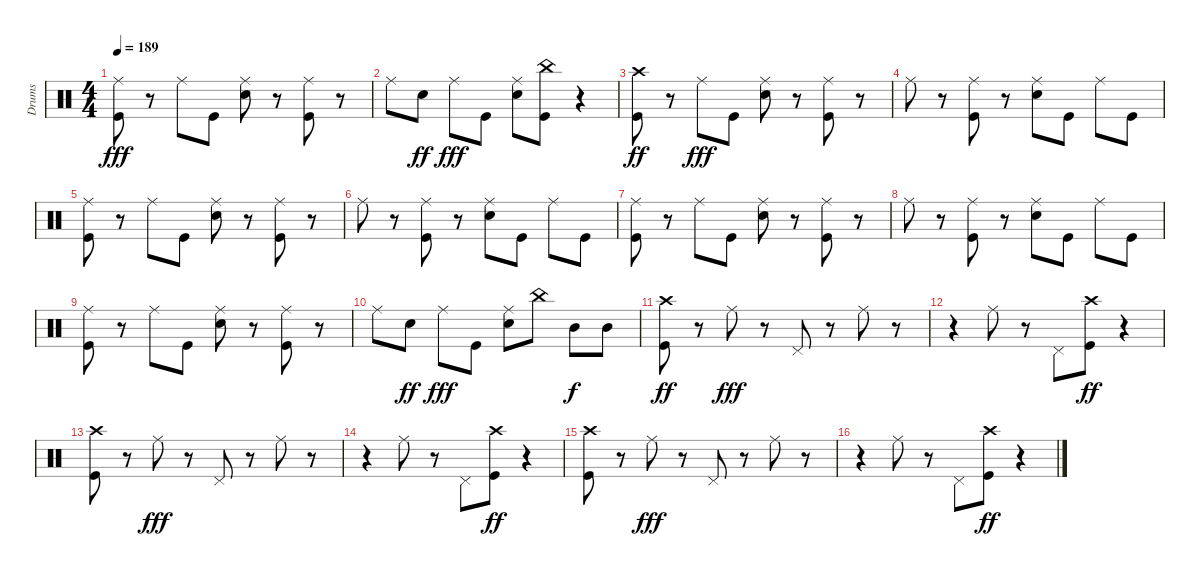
\track ("Drums" "Drums") {instrument percussion}
\staff {score}
\articulation defaults
\ts (4 4)
\tempo 189
\clef neutral
\ks c
("Kick (hit)" "Ride (middle)").8{dy fff} r.8 "Ride (middle)".8 "Kick (hit)".8 ("Snare (hit) 2" "Ride (middle)").8 r.8 ("Kick (hit)" "Ride (middle)").8 r.8 |
"Ride (middle)".8 "Snare (hit) 2".8{dy ff} "Ride (middle)".8{dy fff} "Kick (hit)".8 ("Snare (hit) 2" "Ride (middle)").8 ("Kick (hit)" "China (hit)").8 r.4 |
("Kick (hit)" "Crash high (hit)").8{dy ff} r.8 "Ride (middle)".8{dy fff} "Kick (hit)".8 ("Snare (hit) 2" "Ride (middle)").8 r.8 ("Kick (hit)" "Ride (middle)").8 r.8 |
"Ride (middle)".8 r.8 ("Kick (hit)" "Ride (middle)").8 r.8 ("Snare (hit) 2" "Ride (middle)").8 "Kick (hit)".8 "Ride (middle)".8 "Kick (hit)".8 |
("Kick (hit)" "Ride (middle)").8 r.8 "Ride (middle)".8 "Kick (hit)".8 ("Snare (hit) 2" "Ride (middle)").8 r.8 ("Kick (hit)" "Ride (middle)").8 r.8 |
"Ride (middle)".8 r.8 ("Kick (hit)" "Ride (middle)").8 r.8 ("Snare (hit) 2" "Ride (middle)").8 "Kick (hit)".8 "Ride (middle)".8 "Kick (hit)".8 |
("Kick (hit)" "Ride (middle)").8 r.8 "Ride (middle)".8 "Kick (hit)".8 ("Snare (hit) 2" "Ride (middle)").8 r.8 ("Kick (hit)" "Ride (middle)").8 r.8 |
"Ride (middle)".8 r.8 ("Kick (hit)" "Ride (middle)").8 r.8 ("Snare (hit) 2" "Ride (middle)").8 "Kick (hit)".8 "Ride (middle)".8 "Kick (hit)".8 |
("Kick (hit)" "Ride (middle)").8 r.8 "Ride (middle)".8 "Kick (hit)".8 ("Snare (hit) 2" "Ride (middle)").8 r.8 ("Kick (hit)" "Ride (middle)").8 r.8 |
"Ride (middle)".8 "Snare (hit) 2".8{dy ff} "Ride (middle)".8{dy fff} "Kick (hit)".8 ("Snare (hit) 2" "Ride (middle)").8 "China (hit)".8 "Mid Tom (hit)".8{dy f} "Mid Tom (hit)".8 |
("Kick (hit)" "Crash high (hit)").8{dy ff} r.8 "Ride (middle)".8{dy fff} r.8 "Pedal Hi-Hat (hit)".8 r.8 "Ride (middle)".8 r.8 |
r.4 "Ride (middle)".8 r.8 "Pedal Hi-Hat (hit)".8 ("Kick (hit)" "Crash high (hit)").8{dy ff} r.4 |
("Kick (hit)" "Crash high (hit)").8 r.8 "Ride (middle)".8{dy fff} r.8 "Pedal Hi-Hat (hit)".8 r.8 "Ride (middle)".8 r.8 |
r.4 "Ride (middle)".8 r.8 "Pedal Hi-Hat (hit)".8 ("Kick (hit)" "Crash high (hit)").8{dy ff} r.4 |
("Kick (hit)" "Crash high (hit)").8 r.8 "Ride (middle)".8{dy fff} r.8 "Pedal Hi-Hat (hit)".8 r.8 "Ride (middle)".8 r.8 |
r.4 "Ride (middle)".8 r.8 "Pedal Hi-Hat (hit)".8 ("Kick (hit)" "Crash high (hit)").8{dy ff} r.4
